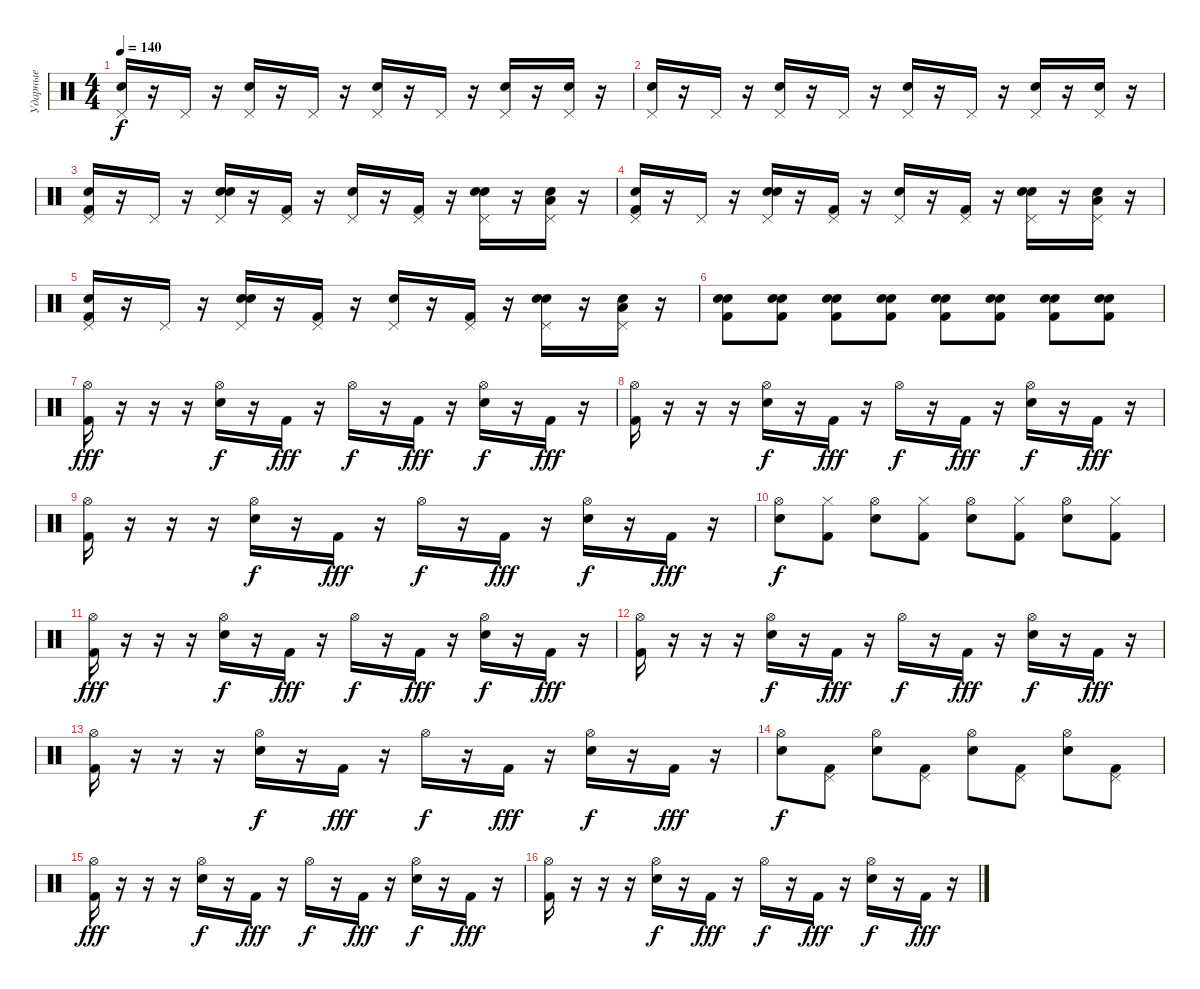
\track ("Ударные" "Ударные") {instrument percussion}
\staff {score}
\articulation defaults
\ts (4 4)
\tempo 140
\clef neutral
\ks c
("Hand Clap (hit)" "Pedal Hi-Hat (hit)").16{dy f} r.16 "Pedal Hi-Hat (hit)".16 r.16 ("Hand Clap (hit)" "Pedal Hi-Hat (hit)").16 r.16 "Pedal Hi-Hat (hit)".16 r.16 ("Hand Clap (hit)" "Pedal Hi-Hat (hit)").16 r.16 "Pedal Hi-Hat (hit)".16 r.16 ("Hand Clap (hit)" "Pedal Hi-Hat (hit)").16 r.16 ("Hand Clap (hit)" "Pedal Hi-Hat (hit)").16 r.16 |
("Hand Clap (hit)" "Pedal Hi-Hat (hit)").16 r.16 "Pedal Hi-Hat (hit)".16 r.16 ("Hand Clap (hit)" "Pedal Hi-Hat (hit)").16 r.16 "Pedal Hi-Hat (hit)".16 r.16 ("Hand Clap (hit)" "Pedal Hi-Hat (hit)").16 r.16 "Pedal Hi-Hat (hit)".16 r.16 ("Hand Clap (hit)" "Pedal Hi-Hat (hit)").16 r.16 ("Hand Clap (hit)" "Pedal Hi-Hat (hit)").16 r.16 |
("Hand Clap (hit)" "Kick (hit) 2" "Pedal Hi-Hat (hit)").16 r.16 "Pedal Hi-Hat (hit)".16 r.16 ("Hand Clap (hit)" "Snare (hit) 2" "Pedal Hi-Hat (hit)").16 r.16 ("Kick (hit) 2" "Pedal Hi-Hat (hit)").16 r.16 ("Hand Clap (hit)" "Pedal Hi-Hat (hit)").16 r.16 ("Kick (hit) 2" "Pedal Hi-Hat (hit)").16 r.16 ("Hand Clap (hit)" "Snare (hit) 2" "Pedal Hi-Hat (hit)").16 r.16 ("Hand Clap (hit)" "Low Tom (hit)" "Pedal Hi-Hat (hit)").16 r.16 |
("Hand Clap (hit)" "Kick (hit) 2" "Pedal Hi-Hat (hit)").16 r.16 "Pedal Hi-Hat (hit)".16 r.16 ("Hand Clap (hit)" "Snare (hit) 2" "Pedal Hi-Hat (hit)").16 r.16 ("Kick (hit) 2" "Pedal Hi-Hat (hit)").16 r.16 ("Hand Clap (hit)" "Pedal Hi-Hat (hit)").16 r.16 ("Kick (hit) 2" "Pedal Hi-Hat (hit)").16 r.16 ("Hand Clap (hit)" "Snare (hit) 2" "Pedal Hi-Hat (hit)").16 r.16 ("Hand Clap (hit)" "Low Tom (hit)" "Pedal Hi-Hat (hit)").16 r.16 |
("Hand Clap (hit)" "Kick (hit) 2" "Pedal Hi-Hat (hit)").16 r.16 "Pedal Hi-Hat (hit)".16 r.16 ("Hand Clap (hit)" "Snare (hit) 2" "Pedal Hi-Hat (hit)").16 r.16 ("Kick (hit) 2" "Pedal Hi-Hat (hit)").16 r.16 ("Hand Clap (hit)" "Pedal Hi-Hat (hit)").16 r.16 ("Kick (hit) 2" "Pedal Hi-Hat (hit)").16 r.16 ("Hand Clap (hit)" "Snare (hit) 2" "Pedal Hi-Hat (hit)").16 r.16 ("Hand Clap (hit)" "Low Tom (hit)" "Pedal Hi-Hat (hit)").16 r.16 |
("Kick (hit) 2" "Snare (hit) 2" "Hand Clap (hit)").8 ("Kick (hit) 2" "Snare (hit) 2" "Hand Clap (hit)").8 ("Kick (hit) 2" "Snare (hit) 2" "Hand Clap (hit)").8 ("Kick (hit) 2" "Snare (hit) 2" "Hand Clap (hit)").8 ("Kick (hit) 2" "Snare (hit) 2" "Hand Clap (hit)").8 ("Kick (hit) 2" "Snare (hit) 2" "Hand Clap (hit)").8 ("Kick (hit) 2" "Snare (hit) 2" "Hand Clap (hit)").8 ("Kick (hit) 2" "Snare (hit) 2" "Hand Clap (hit)").8 |
("Kick (hit) 2" "Hi-Hat (open)").16{dy fff} r.16 r.16 r.16 ("Snare (hit) 2" "Hi-Hat (open)").16{dy f} r.16 "Kick (hit) 2".16{dy fff} r.16 "Hi-Hat (open)".16{dy f} r.16 "Kick (hit) 2".16{dy fff} r.16 ("Snare (hit) 2" "Hi-Hat (open)").16{dy f} r.16 "Kick (hit) 2".16{dy fff} r.16 |
("Kick (hit) 2" "Hi-Hat (open)").16 r.16 r.16 r.16 ("Snare (hit) 2" "Hi-Hat (open)").16{dy f} r.16 "Kick (hit) 2".16{dy fff} r.16 "Hi-Hat (open)".16{dy f} r.16 "Kick (hit) 2".16{dy fff} r.16 ("Snare (hit) 2" "Hi-Hat (open)").16{dy f} r.16 "Kick (hit) 2".16{dy fff} r.16 |
("Kick (hit) 2" "Hi-Hat (open)").16 r.16 r.16 r.16 ("Snare (hit) 2" "Hi-Hat (open)").16{dy f} r.16 "Kick (hit) 2".16{dy fff} r.16 "Hi-Hat (open)".16{dy f} r.16 "Kick (hit) 2".16{dy fff} r.16 ("Snare (hit) 2" "Hi-Hat (open)").16{dy f} r.16 "Kick (hit) 2".16{dy fff} r.16 |
("Snare (hit) 2" "Hi-Hat (open)").8{dy f} ("Kick (hit) 2" "Hi-Hat (closed)").8 ("Snare (hit) 2" "Hi-Hat (open)").8 ("Kick (hit) 2" "Hi-Hat (closed)").8 ("Snare (hit) 2" "Hi-Hat (open)").8 ("Kick (hit) 2" "Hi-Hat (closed)").8 ("Snare (hit) 2" "Hi-Hat (open)").8 ("Kick (hit) 2" "Hi-Hat (closed)").8 |
("Kick (hit) 2" "Hi-Hat (open)").16{dy fff} r.16 r.16 r.16 ("Snare (hit) 2" "Hi-Hat (open)").16{dy f} r.16 "Kick (hit) 2".16{dy fff} r.16 "Hi-Hat (open)".16{dy f} r.16 "Kick (hit) 2".16{dy fff} r.16 ("Snare (hit) 2" "Hi-Hat (open)").16{dy f} r.16 "Kick (hit) 2".16{dy fff} r.16 |
("Kick (hit) 2" "Hi-Hat (open)").16 r.16 r.16 r.16 ("Snare (hit) 2" "Hi-Hat (open)").16{dy f} r.16 "Kick (hit) 2".16{dy fff} r.16 "Hi-Hat (open)".16{dy f} r.16 "Kick (hit) 2".16{dy fff} r.16 ("Snare (hit) 2" "Hi-Hat (open)").16{dy f} r.16 "Kick (hit) 2".16{dy fff} r.16 |
("Kick (hit) 2" "Hi-Hat (open)").16 r.16 r.16 r.16 ("Snare (hit) 2" "Hi-Hat (open)").16{dy f} r.16 "Kick (hit) 2".16{dy fff} r.16 "Hi-Hat (open)".16{dy f} r.16 "Kick (hit) 2".16{dy fff} r.16 ("Snare (hit) 2" "Hi-Hat (open)").16{dy f} r.16 "Kick (hit) 2".16{dy fff} r.16 |
("Snare (hit) 2" "Hi-Hat (open)").8{dy f} ("Kick (hit) 2" "Pedal Hi-Hat (hit)").8 ("Snare (hit) 2" "Hi-Hat (open)").8 ("Kick (hit) 2" "Pedal Hi-Hat (hit)").8 ("Snare (hit) 2" "Hi-Hat (open)").8 ("Kick (hit) 2" "Pedal Hi-Hat (hit)").8 ("Snare (hit) 2" "Hi-Hat (open)").8 ("Kick (hit) 2" "Pedal Hi-Hat (hit)").8 |
("Kick (hit) 2" "Hi-Hat (open)").16{dy fff} r.16 r.16 r.16 ("Snare (hit) 2" "Hi-Hat (open)").16{dy f} r.16 "Kick (hit) 2".16{dy fff} r.16 "Hi-Hat (open)".16{dy f} r.16 "Kick (hit) 2".16{dy fff} r.16 ("Snare (hit) 2" "Hi-Hat (open)").16{dy f} r.16 "Kick (hit) 2".16{dy fff} r.16 |
("Kick (hit) 2" "Hi-Hat (open)").16 r.16 r.16 r.16 ("Snare (hit) 2" "Hi-Hat (open)").16{dy f} r.16 "Kick (hit) 2".16{dy fff} r.16 "Hi-Hat (open)".16{dy f} r.16 "Kick (hit) 2".16{dy fff} r.16 ("Snare (hit) 2" "Hi-Hat (open)").16{dy f} r.16 "Kick (hit) 2".16{dy fff} r.16
